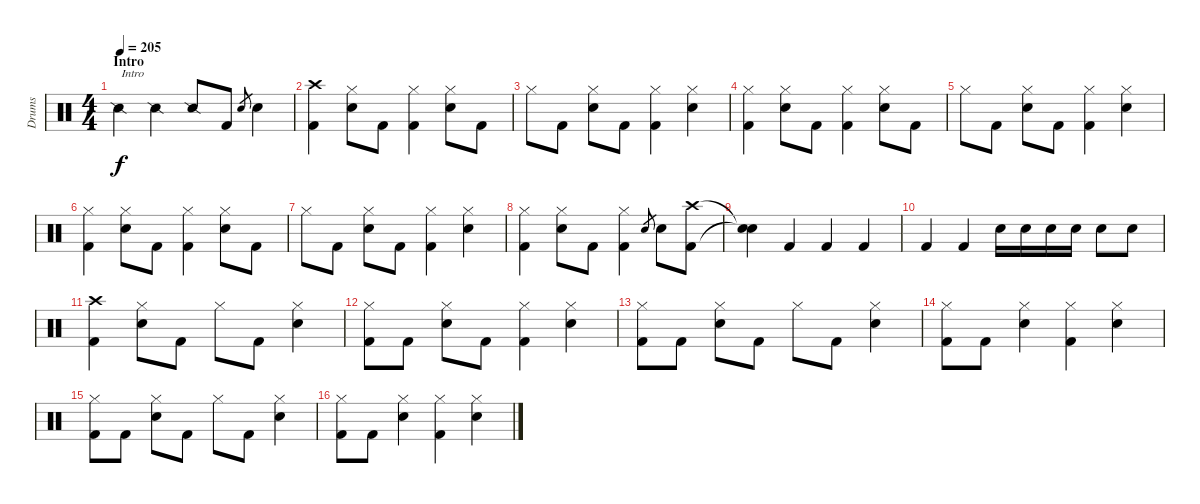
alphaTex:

\track ("Drums" "Drums") {instrument percussion}
\staff {score}
\articulation defaults
\ts (4 4)
\section ("" "Intro")
\tempo 205
\clef neutral
\ks c "Snare (side stick) 2".4{txt "Intro" dy f} "Snare (side stick) 2".4 "Snare (side stick) 2".8 "Kick (hit) 2".8 "Electric Snare (hit)".8{gr} "Electric Snare (hit)".4
|
("Crash high (hit)" "Kick (hit) 2").4 ("Hi-Hat (closed)" "Electric Snare (hit)").8 "Kick (hit) 2".8 ("Hi-Hat (closed)" "Kick (hit) 2").4 ("Hi-Hat (closed)" "Electric Snare (hit)").8 "Kick (hit) 2".8 |
"Hi-Hat (closed)".8 "Kick (hit) 2".8 ("Hi-Hat (closed)" "Electric Snare (hit)").8 "Kick (hit) 2".8 ("Hi-Hat (closed)" "Kick (hit) 2").4 ("Hi-Hat (closed)" "Electric Snare (hit)").4 |
("Hi-Hat (closed)" "Kick (hit) 2").4 ("Hi-Hat (closed)" "Electric Snare (hit)").8 "Kick (hit) 2".8 ("Hi-Hat (closed)" "Kick (hit) 2").4 ("Hi-Hat (closed)" "Electric Snare (hit)").8 "Kick (hit) 2".8 |
"Hi-Hat (closed)".8 "Kick (hit) 2".8 ("Hi-Hat (closed)" "Electric Snare (hit)").8 "Kick (hit) 2".8 ("Hi-Hat (closed)" "Kick (hit) 2").4 ("Hi-Hat (closed)" "Electric Snare (hit)").4 |
("Hi-Hat (closed)" "Kick (hit) 2").4 ("Hi-Hat (closed)" "Electric Snare (hit)").8 "Kick (hit) 2".8 ("Hi-Hat (closed)" "Kick (hit) 2").4 ("Hi-Hat (closed)" "Electric Snare (hit)").8 "Kick (hit) 2".8 |
"Hi-Hat (closed)".8 "Kick (hit) 2".8 ("Hi-Hat (closed)" "Electric Snare (hit)").8 "Kick (hit) 2".8 ("Hi-Hat (closed)" "Kick (hit) 2").4 ("Hi-Hat (closed)" "Electric Snare (hit)").4 |
("Hi-Hat (closed)" "Kick (hit) 2").4 ("Hi-Hat (closed)" "Electric Snare (hit)").8 "Kick (hit) 2".8 ("Hi-Hat (closed)" "Kick (hit) 2").4 "Electric Snare (hit)".8{gr} "Electric Snare (hit)".8 ("Crash high (hit)" "Kick (hit) 2").8 |
("Snare (hit)"{t} "Snare (hit)"{t}).4 "Kick (hit) 2".4 "Kick (hit) 2".4 "Kick (hit) 2".4 |
"Kick (hit) 2".4 "Kick (hit) 2".4 "Electric Snare (hit)".16 "Electric Snare (hit)".16 "Electric Snare (hit)".16 "Electric Snare (hit)".16 "Electric Snare (hit)".8 "Electric Snare (hit)".8 |
("Crash high (hit)" "Kick (hit) 2").4 ("Hi-Hat (closed)" "Electric Snare (hit)").8 "Kick (hit) 2".8 "Hi-Hat (closed)".8 "Kick (hit) 2".8 ("Hi-Hat (closed)" "Electric Snare (hit)").4 |
("Hi-Hat (closed)" "Kick (hit) 2").8 "Kick (hit) 2".8 ("Hi-Hat (closed)" "Electric Snare (hit)").8 "Kick (hit) 2".8 ("Hi-Hat (closed)" "Kick (hit) 2").4 ("Hi-Hat (closed)" "Electric Snare (hit)").4 |
("Hi-Hat (closed)" "Kick (hit) 2").8 "Kick (hit) 2".8 ("Hi-Hat (closed)" "Electric Snare (hit)").8 "Kick (hit) 2".8 "Hi-Hat (closed)".8 "Kick (hit) 2".8 ("Hi-Hat (closed)" "Electric Snare (hit)").4 |
("Hi-Hat (closed)" "Kick (hit) 2").8 "Kick (hit) 2".8 ("Hi-Hat (closed)" "Electric Snare (hit)").4 ("Hi-Hat (closed)" "Kick (hit) 2").4 ("Hi-Hat (closed)" "Electric Snare (hit)").4 |
("Hi-Hat (closed)" "Kick (hit) 2").8 "Kick (hit) 2".8 ("Hi-Hat (closed)" "Electric Snare (hit)").8 "Kick (hit) 2".8 "Hi-Hat (closed)".8 "Kick (hit) 2".8 ("Hi-Hat (closed)" "Electric Snare (hit)").4 |
("Hi-Hat (closed)" "Kick (hit) 2").8 "Kick (hit) 2".8 ("Hi-Hat (closed)" "Electric Snare (hit)").4 ("Hi-Hat (closed)" "Kick (hit) 2").4 ("Hi-Hat (closed)" "Electric Snare (hit)").4
